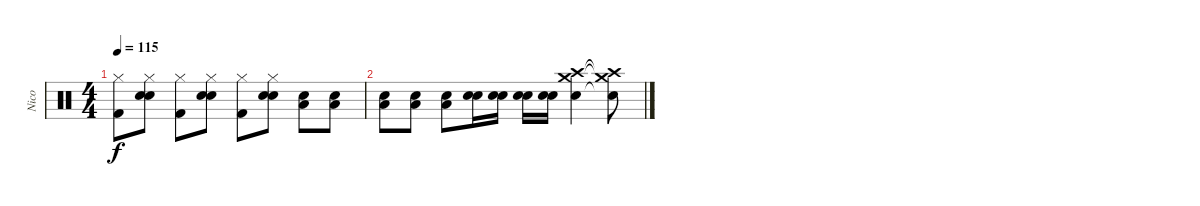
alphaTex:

\track ("Nico" "Nico") {instrument percussion}
\staff {score}
\articulation defaults
\ts (4 4)
\tempo 115
\clef neutral
\ks c
("Hi-Hat (closed)" "Kick (hit) 2").8{dy f} ("Hi-Hat (closed)" "Snare (hit) 2" "Electric Snare (hit)").8 ("Hi-Hat (closed)" "Kick (hit) 2").8 ("Hi-Hat (closed)" "Electric Snare (hit)" "Snare (hit) 2").8 ("Hi-Hat (closed)" "Kick (hit) 2").8 ("Hi-Hat (closed)" "Electric Snare (hit)" "Snare (hit) 2").8 ("Electric Snare (hit)" "Low Floor Tom (hit)").8 ("Electric Snare (hit)" "Low Floor Tom (hit)").8 |
("Electric Snare (hit)" "Low Floor Tom (hit)").8 ("Electric Snare (hit)" "Low Floor Tom (hit)").8 ("Electric Snare (hit)" "Low Floor Tom (hit)").8 ("Electric Snare (hit)" "Electric Snare (hit)").16 ("Electric Snare (hit)" "Electric Snare (hit)").16 ("Electric Snare (hit)" "Electric Snare (hit)").16 ("Electric Snare (hit)" "Electric Snare (hit)").16 ("Crash medium (hit)" "Crash high (hit)" "Electric Snare (hit)").4 ("Crash medium (hit)"{t} "Crash high (hit)"{t} "Electric Snare (hit)"{t}).8
